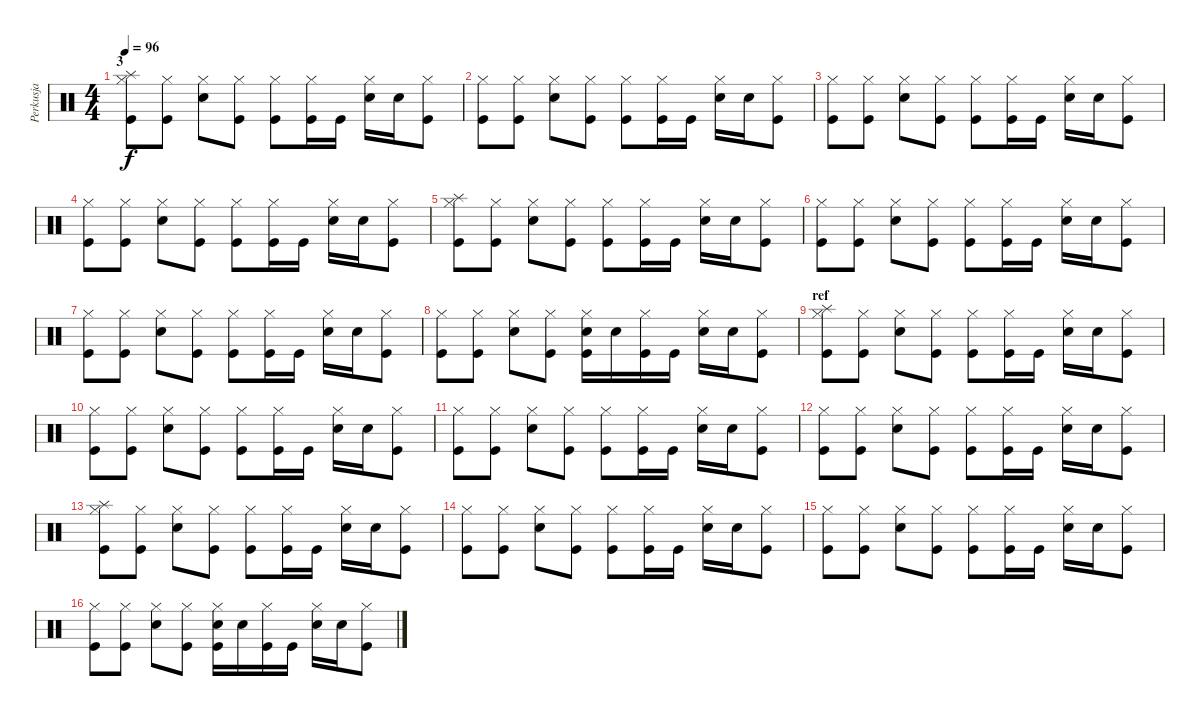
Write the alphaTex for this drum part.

\track ("Perkusja" "Perkusja") {instrument percussion}
\staff {score}
\articulation defaults
\ts (4 4)
\section ("" "3")
\tempo 96
\clef neutral
\ks c
("Splash (hit)" "Hi-Hat (closed)" "Kick (hit)").8{dy f} ("Hi-Hat (closed)" "Kick (hit)").8 ("Electric Snare (hit)" "Hi-Hat (closed)").8 ("Hi-Hat (closed)" "Kick (hit)").8 ("Hi-Hat (closed)" "Kick (hit)").8 ("Hi-Hat (closed)" "Kick (hit)").16 "Kick (hit)".16 ("Electric Snare (hit)" "Hi-Hat (closed)").16 "Electric Snare (hit)".16 ("Hi-Hat (closed)" "Kick (hit)").8 |
("Hi-Hat (closed)" "Kick (hit)").8 ("Hi-Hat (closed)" "Kick (hit)").8 ("Electric Snare (hit)" "Hi-Hat (closed)").8 ("Hi-Hat (closed)" "Kick (hit)").8 ("Hi-Hat (closed)" "Kick (hit)").8 ("Hi-Hat (closed)" "Kick (hit)").16 "Kick (hit)".16 ("Electric Snare (hit)" "Hi-Hat (closed)").16 "Electric Snare (hit)".16 ("Hi-Hat (closed)" "Kick (hit)").8 |
("Hi-Hat (closed)" "Kick (hit)").8 ("Hi-Hat (closed)" "Kick (hit)").8 ("Electric Snare (hit)" "Hi-Hat (closed)").8 ("Hi-Hat (closed)" "Kick (hit)").8 ("Hi-Hat (closed)" "Kick (hit)").8 ("Hi-Hat (closed)" "Kick (hit)").16 "Kick (hit)".16 ("Electric Snare (hit)" "Hi-Hat (closed)").16 "Electric Snare (hit)".16 ("Hi-Hat (closed)" "Kick (hit)").8 |
("Hi-Hat (closed)" "Kick (hit)").8 ("Hi-Hat (closed)" "Kick (hit)").8 ("Electric Snare (hit)" "Hi-Hat (closed)").8 ("Hi-Hat (closed)" "Kick (hit)").8 ("Hi-Hat (closed)" "Kick (hit)").8 ("Hi-Hat (closed)" "Kick (hit)").16 "Kick (hit)".16 ("Electric Snare (hit)" "Hi-Hat (closed)").16 "Electric Snare (hit)".16 ("Hi-Hat (closed)" "Kick (hit)").8 |
("Splash (hit)" "Hi-Hat (closed)" "Kick (hit)").8 ("Hi-Hat (closed)" "Kick (hit)").8 ("Electric Snare (hit)" "Hi-Hat (closed)").8 ("Hi-Hat (closed)" "Kick (hit)").8 ("Hi-Hat (closed)" "Kick (hit)").8 ("Hi-Hat (closed)" "Kick (hit)").16 "Kick (hit)".16 ("Electric Snare (hit)" "Hi-Hat (closed)").16 "Electric Snare (hit)".16 ("Hi-Hat (closed)" "Kick (hit)").8 |
("Hi-Hat (closed)" "Kick (hit)").8 ("Hi-Hat (closed)" "Kick (hit)").8 ("Electric Snare (hit)" "Hi-Hat (closed)").8 ("Hi-Hat (closed)" "Kick (hit)").8 ("Hi-Hat (closed)" "Kick (hit)").8 ("Hi-Hat (closed)" "Kick (hit)").16 "Kick (hit)".16 ("Electric Snare (hit)" "Hi-Hat (closed)").16 "Electric Snare (hit)".16 ("Hi-Hat (closed)" "Kick (hit)").8 |
("Hi-Hat (closed)" "Kick (hit)").8 ("Hi-Hat (closed)" "Kick (hit)").8 ("Electric Snare (hit)" "Hi-Hat (closed)").8 ("Hi-Hat (closed)" "Kick (hit)").8 ("Hi-Hat (closed)" "Kick (hit)").8 ("Hi-Hat (closed)" "Kick (hit)").16 "Kick (hit)".16 ("Electric Snare (hit)" "Hi-Hat (closed)").16 "Electric Snare (hit)".16 ("Hi-Hat (closed)" "Kick (hit)").8 |
("Hi-Hat (closed)" "Kick (hit)").8 ("Hi-Hat (closed)" "Kick (hit)").8 ("Electric Snare (hit)" "Hi-Hat (closed)").8 ("Hi-Hat (closed)" "Kick (hit)").8 ("Electric Snare (hit)" "Hi-Hat (closed)" "Kick (hit)").16 "Electric Snare (hit)".16 ("Hi-Hat (closed)" "Kick (hit)").16 "Kick (hit)".16 ("Electric Snare (hit)" "Hi-Hat (closed)").16 "Electric Snare (hit)".16 ("Hi-Hat (closed)" "Kick (hit)").8 |
\section ("" "ref")
("Splash (hit)" "Hi-Hat (closed)" "Kick (hit)").8 ("Hi-Hat (closed)" "Kick (hit)").8 ("Electric Snare (hit)" "Hi-Hat (closed)").8 ("Hi-Hat (closed)" "Kick (hit)").8 ("Hi-Hat (closed)" "Kick (hit)").8 ("Hi-Hat (closed)" "Kick (hit)").16 "Kick (hit)".16 ("Electric Snare (hit)" "Hi-Hat (closed)").16 "Electric Snare (hit)".16 ("Hi-Hat (closed)" "Kick (hit)").8 |
("Hi-Hat (closed)" "Kick (hit)").8 ("Hi-Hat (closed)" "Kick (hit)").8 ("Electric Snare (hit)" "Hi-Hat (closed)").8 ("Hi-Hat (closed)" "Kick (hit)").8 ("Hi-Hat (closed)" "Kick (hit)").8 ("Hi-Hat (closed)" "Kick (hit)").16 "Kick (hit)".16 ("Electric Snare (hit)" "Hi-Hat (closed)").16 "Electric Snare (hit)".16 ("Hi-Hat (closed)" "Kick (hit)").8 |
("Hi-Hat (closed)" "Kick (hit)").8 ("Hi-Hat (closed)" "Kick (hit)").8 ("Electric Snare (hit)" "Hi-Hat (closed)").8 ("Hi-Hat (closed)" "Kick (hit)").8 ("Hi-Hat (closed)" "Kick (hit)").8 ("Hi-Hat (closed)" "Kick (hit)").16 "Kick (hit)".16 ("Electric Snare (hit)" "Hi-Hat (closed)").16 "Electric Snare (hit)".16 ("Hi-Hat (closed)" "Kick (hit)").8 |
("Hi-Hat (closed)" "Kick (hit)").8 ("Hi-Hat (closed)" "Kick (hit)").8 ("Electric Snare (hit)" "Hi-Hat (closed)").8 ("Hi-Hat (closed)" "Kick (hit)").8 ("Hi-Hat (closed)" "Kick (hit)").8 ("Hi-Hat (closed)" "Kick (hit)").16 "Kick (hit)".16 ("Electric Snare (hit)" "Hi-Hat (closed)").16 "Electric Snare (hit)".16 ("Hi-Hat (closed)" "Kick (hit)").8 |
("Splash (hit)" "Hi-Hat (closed)" "Kick (hit)").8 ("Hi-Hat (closed)" "Kick (hit)").8 ("Electric Snare (hit)" "Hi-Hat (closed)").8 ("Hi-Hat (closed)" "Kick (hit)").8 ("Hi-Hat (closed)" "Kick (hit)").8 ("Hi-Hat (closed)" "Kick (hit)").16 "Kick (hit)".16 ("Electric Snare (hit)" "Hi-Hat (closed)").16 "Electric Snare (hit)".16 ("Hi-Hat (closed)" "Kick (hit)").8 |
("Hi-Hat (closed)" "Kick (hit)").8 ("Hi-Hat (closed)" "Kick (hit)").8 ("Electric Snare (hit)" "Hi-Hat (closed)").8 ("Hi-Hat (closed)" "Kick (hit)").8 ("Hi-Hat (closed)" "Kick (hit)").8 ("Hi-Hat (closed)" "Kick (hit)").16 "Kick (hit)".16 ("Electric Snare (hit)" "Hi-Hat (closed)").16 "Electric Snare (hit)".16 ("Hi-Hat (closed)" "Kick (hit)").8 |
("Hi-Hat (closed)" "Kick (hit)").8 ("Hi-Hat (closed)" "Kick (hit)").8 ("Electric Snare (hit)" "Hi-Hat (closed)").8 ("Hi-Hat (closed)" "Kick (hit)").8 ("Hi-Hat (closed)" "Kick (hit)").8 ("Hi-Hat (closed)" "Kick (hit)").16 "Kick (hit)".16 ("Electric Snare (hit)" "Hi-Hat (closed)").16 "Electric Snare (hit)".16 ("Hi-Hat (closed)" "Kick (hit)").8 |
("Hi-Hat (closed)" "Kick (hit)").8 ("Hi-Hat (closed)" "Kick (hit)").8 ("Electric Snare (hit)" "Hi-Hat (closed)").8 ("Hi-Hat (closed)" "Kick (hit)").8 ("Electric Snare (hit)" "Hi-Hat (closed)" "Kick (hit)").16 "Electric Snare (hit)".16 ("Hi-Hat (closed)" "Kick (hit)").16 "Kick (hit)".16 ("Electric Snare (hit)" "Hi-Hat (closed)").16 "Electric Snare (hit)".16 ("Hi-Hat (closed)" "Kick (hit)").8
